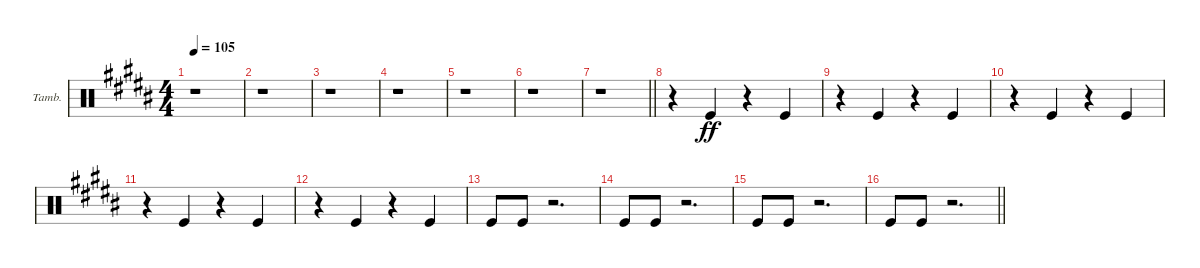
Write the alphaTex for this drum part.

\defaultSystemsLayout 4
\bracketExtendMode groupsimilarinstruments
\firstSystemTrackNameOrientation horizontal
\otherSystemsTrackNameOrientation horizontal
\track ("Tambourine" "Tamb.") {instrument percussion}
\staff {score}
\articulation defaults
\ts (4 4)
\tempo 105
\clef neutral
\scale
0.333333
\ks b
r.1{dy ff} |
\scale
0.333333 r.1 |
\scale
0.333333 r.1 |
\scale
0.333333 r.1 |
\scale
0.333333 r.1 |
\scale
0.333333 r.1 |
\scale
0.333333
\barLineRight lightlight
r.1 |
\scale
0.333333 r.4 "Kick (hit)".4 r.4 "Kick (hit)".4 |
\scale
0.333333 r.4 "Kick (hit)".4 r.4 "Kick (hit)".4 |
\scale
0.333333 r.4 "Kick (hit)".4 r.4 "Kick (hit)".4 |
\scale
0.333333 r.4 "Kick (hit)".4 r.4 "Kick (hit)".4 |
\scale
0.333333 r.4 "Kick (hit)".4 r.4 "Kick (hit)".4 |
\scale
0.333333 "Kick (hit)".8 "Kick (hit)".8 r.2{d} |
\scale
0.333333 "Kick (hit)".8 "Kick (hit)".8 r.2{d} |
\scale
0.333333 "Kick (hit)".8 "Kick (hit)".8 r.2{d} |
\scale
0.333333
\barLineRight lightlight "Kick (hit)".8 "Kick (hit)".8
r.2{d}
